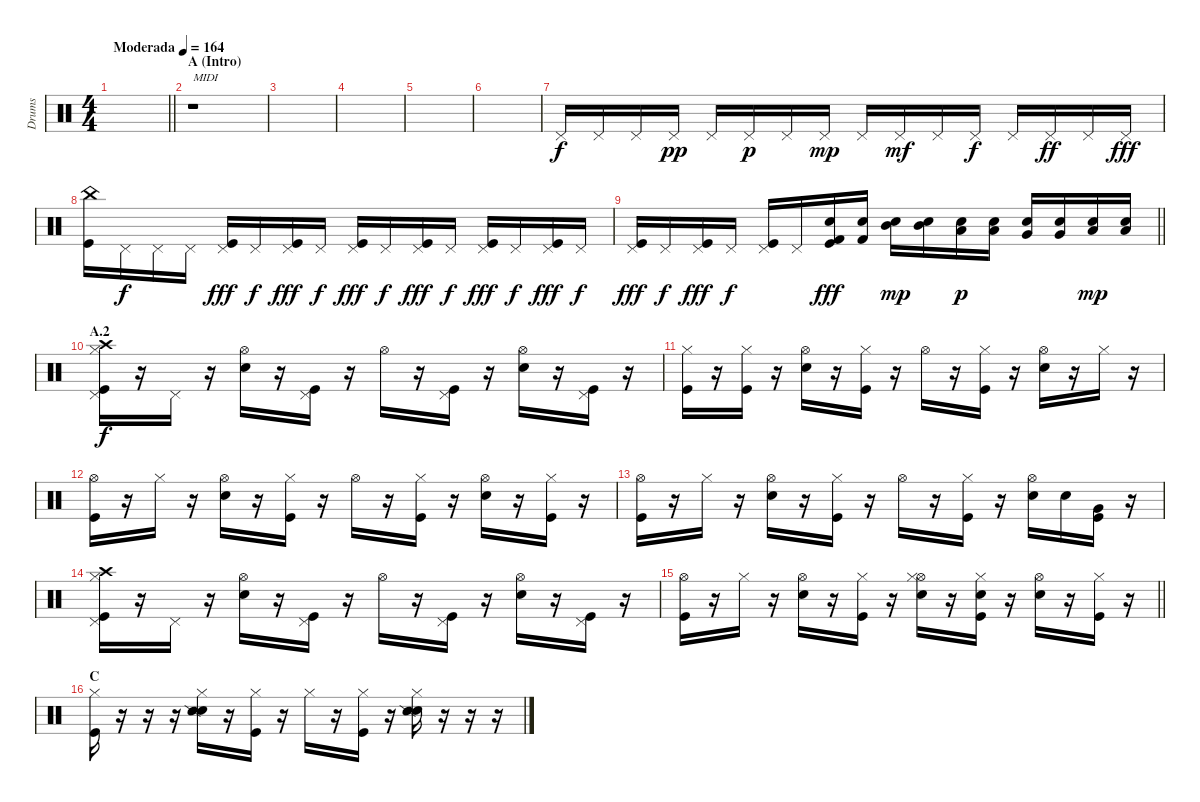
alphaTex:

\track ("Drums" "Drums") {instrument percussion}
\staff {score}
\articulation defaults
\ts (4 4)
\tempo (164 "Moderada")
\clef neutral
\barLineRight lightlight
\ks c
|
\section ("" "A (Intro)")
r.1{txt "MIDI"} |
|
|
|
|
"Pedal Hi-Hat (hit)".16 "Pedal Hi-Hat (hit)".16 "Pedal Hi-Hat (hit)".16 "Pedal Hi-Hat (hit)".16{dy pp} "Pedal Hi-Hat (hit)".16 "Pedal Hi-Hat (hit)".16{dy p} "Pedal Hi-Hat (hit)".16 "Pedal Hi-Hat (hit)".16{dy mp} "Pedal Hi-Hat (hit)".16 "Pedal Hi-Hat (hit)".16{dy mf} "Pedal Hi-Hat (hit)".16 "Pedal Hi-Hat (hit)".16{dy f} "Pedal Hi-Hat (hit)".16 "Pedal Hi-Hat (hit)".16{dy ff} "Pedal Hi-Hat (hit)".16 "Pedal Hi-Hat (hit)".16{dy fff} |
("China (hit)" "Kick (hit)").16 "Pedal Hi-Hat (hit)".16{dy f} "Pedal Hi-Hat (hit)".16 "Pedal Hi-Hat (hit)".16 ("Pedal Hi-Hat (hit)" "Kick (hit)").16{dy fff} "Pedal Hi-Hat (hit)".16{dy f} ("Pedal Hi-Hat (hit)" "Kick (hit)").16{dy fff} "Pedal Hi-Hat (hit)".16{dy f} ("Pedal Hi-Hat (hit)" "Kick (hit)").16{dy fff} "Pedal Hi-Hat (hit)".16{dy f} ("Pedal Hi-Hat (hit)" "Kick (hit)").16{dy fff} "Pedal Hi-Hat (hit)".16{dy f} ("Pedal Hi-Hat (hit)" "Kick (hit)").16{dy fff} "Pedal Hi-Hat (hit)".16{dy f} ("Pedal Hi-Hat (hit)" "Kick (hit)").16{dy fff} "Pedal Hi-Hat (hit)".16{dy f} |
\barLineRight lightlight
("Pedal Hi-Hat (hit)" "Kick (hit)").16{dy fff} "Pedal Hi-Hat (hit)".16{dy f} ("Pedal Hi-Hat (hit)" "Kick (hit)").16{dy fff} "Pedal Hi-Hat (hit)".16{dy f} ("Pedal Hi-Hat (hit)" "Kick (hit)").16 "Pedal Hi-Hat (hit)".16 ("Kick (hit) 2" "Electric Snare (hit)" "Kick (hit)").16{dy fff} ("Kick (hit) 2" "Electric Snare (hit)").16 ("Mid Tom (hit)" "Electric Snare (hit)").16{dy mp} ("Mid Tom (hit)" "Electric Snare (hit)").16 ("Low Tom (hit)" "Snare (hit) 2").16{dy p} ("Low Tom (hit)" "Snare (hit) 2").16 ("Very Low Tom (hit)" "Snare (hit) 2").16 ("Very Low Tom (hit)" "Snare (hit) 2").16 ("Low Floor Tom (hit)" "Electric Snare (hit)").16{dy mp} ("Low Floor Tom (hit)" "Electric Snare (hit)").16 |
\section ("" "A.2")
("Crash high (hit)" "Hi-Hat (closed)" "Pedal Hi-Hat (hit)" "Kick (hit)").16{dy f} r.16 "Pedal Hi-Hat (hit)".16 r.16 ("Hi-Hat (open)" "Snare (hit) 2").16 r.16 ("Pedal Hi-Hat (hit)" "Kick (hit)").16 r.16 "Hi-Hat (open)".16 r.16 ("Pedal Hi-Hat (hit)" "Kick (hit)").16 r.16 ("Hi-Hat (open)" "Snare (hit) 2").16 r.16 ("Pedal Hi-Hat (hit)" "Kick (hit)").16 r.16 |
("Hi-Hat (closed)" "Kick (hit)").16 r.16 ("Hi-Hat (closed)" "Kick (hit)").16 r.16 ("Hi-Hat (open)" "Snare (hit) 2").16 r.16 ("Hi-Hat (closed)" "Kick (hit)").16 r.16 "Hi-Hat (open)".16 r.16 ("Hi-Hat (closed)" "Kick (hit)").16 r.16 ("Hi-Hat (open)" "Snare (hit) 2").16 r.16 "Hi-Hat (closed)".16 r.16 |
("Hi-Hat (open)" "Kick (hit)").16 r.16 "Hi-Hat (closed)".16 r.16 ("Hi-Hat (open)" "Snare (hit) 2").16 r.16 ("Hi-Hat (closed)" "Kick (hit)").16 r.16 "Hi-Hat (open)".16 r.16 ("Hi-Hat (closed)" "Kick (hit)").16 r.16 ("Hi-Hat (open)" "Snare (hit) 2").16 r.16 ("Hi-Hat (closed)" "Kick (hit)").16 r.16 |
("Hi-Hat (open)" "Kick (hit)").16 r.16 "Hi-Hat (closed)".16 r.16 ("Hi-Hat (open)" "Snare (hit) 2").16 r.16 ("Hi-Hat (closed)" "Kick (hit)").16 r.16 "Hi-Hat (open)".16 r.16 ("Hi-Hat (closed)" "Kick (hit)").16 r.16 ("Hi-Hat (open)" "Snare (hit) 2").16 "Snare (hit) 2".16 ("Very Low Tom (hit)" "Kick (hit)").16 r.16 |
("Crash high (hit)" "Hi-Hat (closed)" "Pedal Hi-Hat (hit)" "Kick (hit)").16 r.16 "Pedal Hi-Hat (hit)".16 r.16 ("Hi-Hat (open)" "Snare (hit) 2").16 r.16 ("Pedal Hi-Hat (hit)" "Kick (hit)").16 r.16 "Hi-Hat (open)".16 r.16 ("Pedal Hi-Hat (hit)" "Kick (hit)").16 r.16 ("Hi-Hat (open)" "Snare (hit) 2").16 r.16 ("Pedal Hi-Hat (hit)" "Kick (hit)").16 r.16 |
\barLineRight lightlight
("Hi-Hat (open)" "Kick (hit)").16 r.16 "Hi-Hat (closed)".16 r.16 ("Hi-Hat (open)" "Snare (hit) 2").16 r.16 ("Hi-Hat (closed)" "Kick (hit)").16 r.16 ("Hi-Hat (open)" "Hi-Hat (closed)" "Snare (hit) 2").16 r.16 ("Hi-Hat (closed)" "Snare (hit) 2" "Kick (hit)").16 r.16 ("Hi-Hat (open)" "Snare (hit) 2").16 r.16 ("Hi-Hat (closed)" "Kick (hit)").16 r.16 |
\section ("" "C")
("Hi-Hat (closed)" "Kick (hit)").16 r.16 r.16 r.16 ("Hi-Hat (closed)" "Electric Snare (hit)" "Snare (side stick) 2").16 r.16 ("Hi-Hat (closed)" "Kick (hit)").16 r.16 "Hi-Hat (closed)".16 r.16 ("Hi-Hat (closed)" "Kick (hit)").16 r.16 ("Hi-Hat (closed)" "Electric Snare (hit)" "Snare (side stick) 2").16 r.16 r.16 r.16
